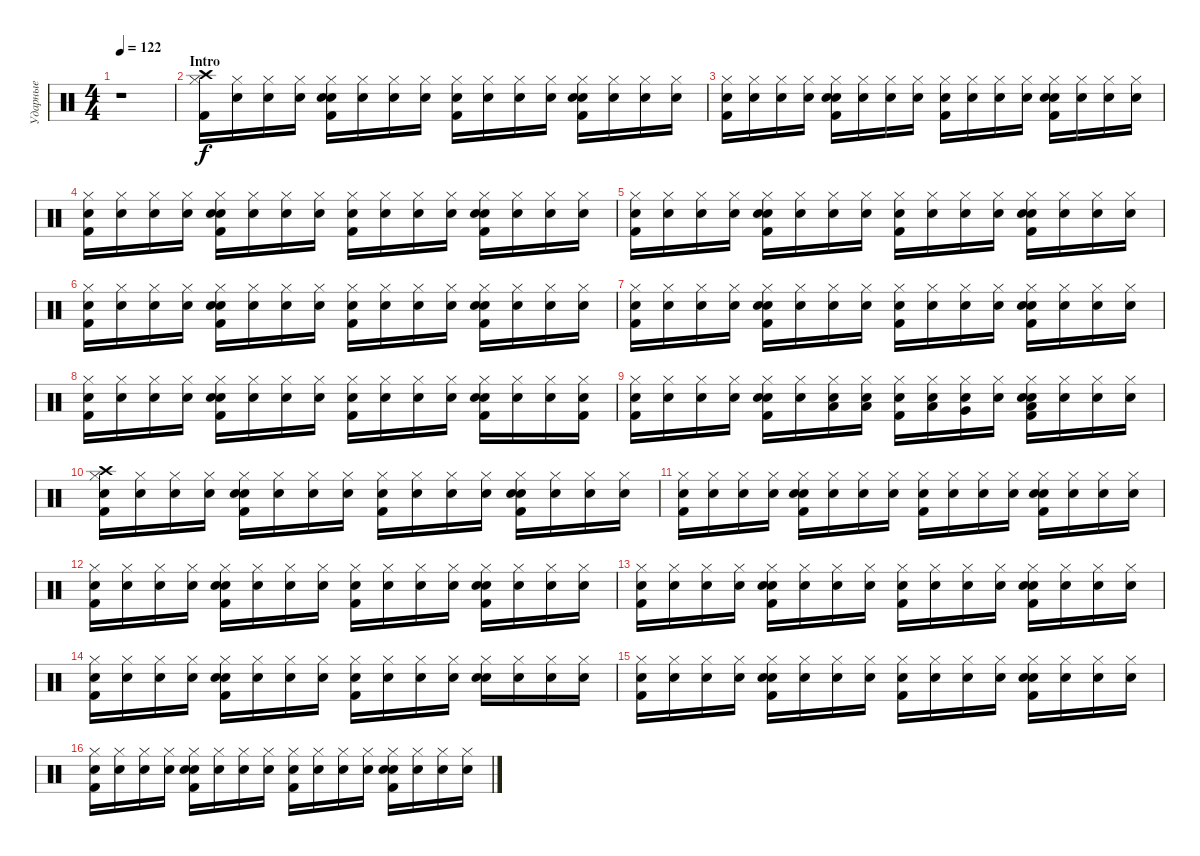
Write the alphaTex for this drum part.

\track ("Ударные" "Ударные") {instrument percussion}
\staff {score}
\articulation defaults
\ts (4 4)
\tempo 122
\clef neutral
\ks c
r.1{dy f} |
\section ("" "Intro")
("Hi-Hat (closed)" "Kick (hit) 2" "Crash high (hit)").16 ("Snare (hit)" "Hi-Hat (closed)").16 ("Snare (hit)" "Hi-Hat (closed)").16 ("Snare (hit)" "Hi-Hat (closed)").16 ("Snare (hit)" "Kick (hit) 2" "Hi-Hat (closed)" "Snare (hit) 2").16 ("Snare (hit)" "Hi-Hat (closed)").16 ("Snare (hit)" "Hi-Hat (closed)").16 ("Snare (hit)" "Hi-Hat (closed)").16 ("Snare (hit)" "Hi-Hat (closed)" "Kick (hit) 2").16 ("Snare (hit)" "Hi-Hat (closed)").16 ("Snare (hit)" "Hi-Hat (closed)").16 ("Snare (hit)" "Hi-Hat (closed)").16 ("Snare (hit)" "Kick (hit) 2" "Hi-Hat (closed)" "Snare (hit) 2").16 ("Snare (hit)" "Hi-Hat (closed)").16 ("Snare (hit)" "Hi-Hat (closed)").16 ("Snare (hit)" "Hi-Hat (closed)").16 |
("Snare (hit)" "Kick (hit) 2" "Hi-Hat (closed)").16 ("Snare (hit)" "Hi-Hat (closed)").16 ("Snare (hit)" "Hi-Hat (closed)").16 ("Snare (hit)" "Hi-Hat (closed)").16 ("Snare (hit)" "Kick (hit) 2" "Snare (hit) 2" "Hi-Hat (closed)").16 ("Snare (hit)" "Hi-Hat (closed)").16 ("Snare (hit)" "Hi-Hat (closed)").16 ("Snare (hit)" "Hi-Hat (closed)").16 ("Snare (hit)" "Kick (hit) 2" "Hi-Hat (closed)").16 ("Snare (hit)" "Hi-Hat (closed)").16 ("Snare (hit)" "Hi-Hat (closed)").16 ("Snare (hit)" "Hi-Hat (closed)").16 ("Snare (hit)" "Kick (hit) 2" "Snare (hit) 2" "Hi-Hat (closed)").16 ("Snare (hit)" "Hi-Hat (closed)").16 ("Snare (hit)" "Hi-Hat (closed)").16 ("Snare (hit)" "Hi-Hat (closed)").16 |
("Snare (hit)" "Kick (hit) 2" "Hi-Hat (closed)").16 ("Snare (hit)" "Hi-Hat (closed)").16 ("Snare (hit)" "Hi-Hat (closed)").16 ("Snare (hit)" "Hi-Hat (closed)").16 ("Snare (hit)" "Kick (hit) 2" "Snare (hit) 2" "Hi-Hat (closed)").16 ("Snare (hit)" "Hi-Hat (closed)").16 ("Snare (hit)" "Hi-Hat (closed)").16 ("Snare (hit)" "Hi-Hat (closed)").16 ("Snare (hit)" "Kick (hit) 2" "Hi-Hat (closed)").16 ("Snare (hit)" "Hi-Hat (closed)").16 ("Snare (hit)" "Hi-Hat (closed)").16 ("Snare (hit)" "Hi-Hat (closed)").16 ("Snare (hit)" "Kick (hit) 2" "Snare (hit) 2" "Hi-Hat (closed)").16 ("Snare (hit)" "Hi-Hat (closed)").16 ("Snare (hit)" "Hi-Hat (closed)").16 ("Snare (hit)" "Hi-Hat (closed)").16 |
("Snare (hit)" "Kick (hit) 2" "Hi-Hat (closed)").16 ("Snare (hit)" "Hi-Hat (closed)").16 ("Snare (hit)" "Hi-Hat (closed)").16 ("Snare (hit)" "Hi-Hat (closed)").16 ("Snare (hit)" "Kick (hit) 2" "Snare (hit) 2" "Hi-Hat (closed)").16 ("Snare (hit)" "Hi-Hat (closed)").16 ("Snare (hit)" "Hi-Hat (closed)").16 ("Snare (hit)" "Hi-Hat (closed)").16 ("Snare (hit)" "Kick (hit) 2" "Hi-Hat (closed)").16 ("Snare (hit)" "Hi-Hat (closed)").16 ("Snare (hit)" "Hi-Hat (closed)").16 ("Snare (hit)" "Hi-Hat (closed)").16 ("Snare (hit)" "Kick (hit) 2" "Snare (hit) 2" "Hi-Hat (closed)").16 ("Snare (hit)" "Hi-Hat (closed)").16 ("Snare (hit)" "Hi-Hat (closed)").16 ("Snare (hit)" "Hi-Hat (closed)").16 |
("Snare (hit)" "Kick (hit) 2" "Hi-Hat (closed)").16 ("Snare (hit)" "Hi-Hat (closed)").16 ("Snare (hit)" "Hi-Hat (closed)").16 ("Snare (hit)" "Hi-Hat (closed)").16 ("Snare (hit)" "Kick (hit) 2" "Snare (hit) 2" "Hi-Hat (closed)").16 ("Snare (hit)" "Hi-Hat (closed)").16 ("Snare (hit)" "Hi-Hat (closed)").16 ("Snare (hit)" "Hi-Hat (closed)").16 ("Snare (hit)" "Kick (hit) 2" "Hi-Hat (closed)").16 ("Snare (hit)" "Hi-Hat (closed)").16 ("Snare (hit)" "Hi-Hat (closed)").16 ("Snare (hit)" "Hi-Hat (closed)").16 ("Snare (hit)" "Kick (hit) 2" "Snare (hit) 2" "Hi-Hat (closed)").16 ("Snare (hit)" "Hi-Hat (closed)").16 ("Snare (hit)" "Hi-Hat (closed)").16 ("Snare (hit)" "Hi-Hat (closed)").16 |
("Snare (hit)" "Kick (hit) 2" "Hi-Hat (closed)").16 ("Snare (hit)" "Hi-Hat (closed)").16 ("Snare (hit)" "Hi-Hat (closed)").16 ("Snare (hit)" "Hi-Hat (closed)").16 ("Snare (hit)" "Kick (hit) 2" "Snare (hit) 2" "Hi-Hat (closed)").16 ("Snare (hit)" "Hi-Hat (closed)").16 ("Snare (hit)" "Hi-Hat (closed)").16 ("Snare (hit)" "Hi-Hat (closed)").16 ("Snare (hit)" "Kick (hit) 2" "Hi-Hat (closed)").16 ("Snare (hit)" "Hi-Hat (closed)").16 ("Snare (hit)" "Hi-Hat (closed)").16 ("Snare (hit)" "Hi-Hat (closed)").16 ("Snare (hit)" "Kick (hit) 2" "Snare (hit) 2" "Hi-Hat (closed)").16 ("Snare (hit)" "Hi-Hat (closed)").16 ("Snare (hit)" "Hi-Hat (closed)").16 ("Snare (hit)" "Hi-Hat (closed)").16 |
("Snare (hit)" "Kick (hit) 2" "Hi-Hat (closed)").16 ("Snare (hit)" "Hi-Hat (closed)").16 ("Snare (hit)" "Hi-Hat (closed)").16 ("Snare (hit)" "Hi-Hat (closed)").16 ("Snare (hit)" "Kick (hit) 2" "Snare (hit) 2" "Hi-Hat (closed)").16 ("Snare (hit)" "Hi-Hat (closed)").16 ("Snare (hit)" "Hi-Hat (closed)").16 ("Snare (hit)" "Hi-Hat (closed)").16 ("Snare (hit)" "Kick (hit) 2" "Hi-Hat (closed)").16 ("Snare (hit)" "Hi-Hat (closed)").16 ("Snare (hit)" "Hi-Hat (closed)").16 ("Snare (hit)" "Hi-Hat (closed)").16 ("Snare (hit)" "Kick (hit) 2" "Snare (hit) 2" "Hi-Hat (closed)").16 ("Snare (hit)" "Hi-Hat (closed)").16 ("Snare (hit)" "Hi-Hat (closed)").16 ("Snare (hit)" "Kick (hit) 2" "Hi-Hat (closed)").16 |
("Snare (hit)" "Kick (hit) 2" "Hi-Hat (closed)").16 ("Snare (hit)" "Hi-Hat (closed)").16 ("Snare (hit)" "Hi-Hat (closed)").16 ("Snare (hit)" "Hi-Hat (closed)").16 ("Snare (hit)" "Kick (hit) 2" "Snare (hit) 2" "Hi-Hat (closed)").16 ("Snare (hit)" "Hi-Hat (closed)").16 ("Snare (hit)" "Low Tom (hit)" "Hi-Hat (closed)").16 ("Snare (hit)" "Low Tom (hit)" "Hi-Hat (closed)").16 ("Snare (hit)" "Kick (hit) 2" "Hi-Hat (closed)").16 ("Snare (hit)" "Low Tom (hit)" "Hi-Hat (closed)").16 ("Snare (hit)" "Very Low Tom (hit)" "Hi-Hat (closed)").16 ("Snare (hit)" "Hi-Hat (closed)").16 ("Snare (hit)" "Kick (hit) 2" "Low Floor Tom (hit)" "Snare (hit) 2" "Hi-Hat (closed)").16 ("Snare (hit)" "Hi-Hat (closed)").16 ("Snare (hit)" "Hi-Hat (closed)").16 ("Snare (hit)" "Hi-Hat (closed)").16 |
("Snare (hit)" "Hi-Hat (closed)" "Kick (hit) 2" "Crash high (hit)").16 ("Snare (hit)" "Hi-Hat (closed)").16 ("Snare (hit)" "Hi-Hat (closed)").16 ("Snare (hit)" "Hi-Hat (closed)").16 ("Snare (hit)" "Kick (hit) 2" "Hi-Hat (closed)" "Snare (hit) 2").16 ("Snare (hit)" "Hi-Hat (closed)").16 ("Snare (hit)" "Hi-Hat (closed)").16 ("Snare (hit)" "Hi-Hat (closed)").16 ("Snare (hit)" "Hi-Hat (closed)" "Kick (hit) 2").16 ("Snare (hit)" "Hi-Hat (closed)").16 ("Snare (hit)" "Hi-Hat (closed)").16 ("Snare (hit)" "Hi-Hat (closed)").16 ("Snare (hit)" "Kick (hit) 2" "Hi-Hat (closed)" "Snare (hit) 2").16 ("Snare (hit)" "Hi-Hat (closed)").16 ("Snare (hit)" "Hi-Hat (closed)").16 ("Snare (hit)" "Hi-Hat (closed)").16 |
("Snare (hit)" "Kick (hit) 2" "Hi-Hat (closed)").16 ("Snare (hit)" "Hi-Hat (closed)").16 ("Snare (hit)" "Hi-Hat (closed)").16 ("Snare (hit)" "Hi-Hat (closed)").16 ("Snare (hit)" "Kick (hit) 2" "Snare (hit) 2" "Hi-Hat (closed)").16 ("Snare (hit)" "Hi-Hat (closed)").16 ("Snare (hit)" "Hi-Hat (closed)").16 ("Snare (hit)" "Hi-Hat (closed)").16 ("Snare (hit)" "Kick (hit) 2" "Hi-Hat (closed)").16 ("Snare (hit)" "Hi-Hat (closed)").16 ("Snare (hit)" "Hi-Hat (closed)").16 ("Snare (hit)" "Hi-Hat (closed)").16 ("Snare (hit)" "Kick (hit) 2" "Snare (hit) 2" "Hi-Hat (closed)").16 ("Snare (hit)" "Hi-Hat (closed)").16 ("Snare (hit)" "Hi-Hat (closed)").16 ("Snare (hit)" "Hi-Hat (closed)").16 |
("Snare (hit)" "Kick (hit) 2" "Hi-Hat (closed)").16 ("Snare (hit)" "Hi-Hat (closed)").16 ("Snare (hit)" "Hi-Hat (closed)").16 ("Snare (hit)" "Hi-Hat (closed)").16 ("Snare (hit)" "Kick (hit) 2" "Snare (hit) 2" "Hi-Hat (closed)").16 ("Snare (hit)" "Hi-Hat (closed)").16 ("Snare (hit)" "Hi-Hat (closed)").16 ("Snare (hit)" "Hi-Hat (closed)").16 ("Snare (hit)" "Kick (hit) 2" "Hi-Hat (closed)").16 ("Snare (hit)" "Hi-Hat (closed)").16 ("Snare (hit)" "Hi-Hat (closed)").16 ("Snare (hit)" "Hi-Hat (closed)").16 ("Snare (hit)" "Kick (hit) 2" "Snare (hit) 2" "Hi-Hat (closed)").16 ("Snare (hit)" "Hi-Hat (closed)").16 ("Snare (hit)" "Hi-Hat (closed)").16 ("Snare (hit)" "Hi-Hat (closed)").16 |
("Snare (hit)" "Kick (hit) 2" "Hi-Hat (closed)").16 ("Snare (hit)" "Hi-Hat (closed)").16 ("Snare (hit)" "Hi-Hat (closed)").16 ("Snare (hit)" "Hi-Hat (closed)").16 ("Snare (hit)" "Kick (hit) 2" "Snare (hit) 2" "Hi-Hat (closed)").16 ("Snare (hit)" "Hi-Hat (closed)").16 ("Snare (hit)" "Hi-Hat (closed)").16 ("Snare (hit)" "Hi-Hat (closed)").16 ("Snare (hit)" "Kick (hit) 2" "Hi-Hat (closed)").16 ("Snare (hit)" "Hi-Hat (closed)").16 ("Snare (hit)" "Hi-Hat (closed)").16 ("Snare (hit)" "Hi-Hat (closed)").16 ("Snare (hit)" "Kick (hit) 2" "Snare (hit) 2" "Hi-Hat (closed)").16 ("Snare (hit)" "Hi-Hat (closed)").16 ("Snare (hit)" "Hi-Hat (closed)").16 ("Snare (hit)" "Hi-Hat (closed)").16 |
("Snare (hit)" "Kick (hit) 2" "Hi-Hat (closed)").16 ("Snare (hit)" "Hi-Hat (closed)").16 ("Snare (hit)" "Hi-Hat (closed)").16 ("Snare (hit)" "Hi-Hat (closed)").16 ("Snare (hit)" "Kick (hit) 2" "Snare (hit) 2" "Hi-Hat (closed)").16 ("Snare (hit)" "Hi-Hat (closed)").16 ("Snare (hit)" "Hi-Hat (closed)").16 ("Snare (hit)" "Hi-Hat (closed)").16 ("Snare (hit)" "Kick (hit) 2" "Hi-Hat (closed)").16 ("Snare (hit)" "Hi-Hat (closed)").16 ("Snare (hit)" "Hi-Hat (closed)").16 ("Snare (hit)" "Hi-Hat (closed)").16 ("Snare (hit)" "Snare (hit) 2" "Hi-Hat (closed)").16 ("Snare (hit)" "Hi-Hat (closed)").16 ("Snare (hit)" "Hi-Hat (closed)").16 ("Snare (hit)" "Hi-Hat (closed)").16 |
("Snare (hit)" "Kick (hit) 2" "Hi-Hat (closed)").16 ("Snare (hit)" "Hi-Hat (closed)").16 ("Snare (hit)" "Hi-Hat (closed)").16 ("Snare (hit)" "Hi-Hat (closed)").16 ("Snare (hit)" "Kick (hit) 2" "Snare (hit) 2" "Hi-Hat (closed)").16 ("Snare (hit)" "Hi-Hat (closed)").16 ("Snare (hit)" "Hi-Hat (closed)").16 ("Snare (hit)" "Hi-Hat (closed)").16 ("Snare (hit)" "Kick (hit) 2" "Hi-Hat (closed)").16 ("Snare (hit)" "Hi-Hat (closed)").16 ("Snare (hit)" "Hi-Hat (closed)").16 ("Snare (hit)" "Hi-Hat (closed)").16 ("Snare (hit)" "Kick (hit) 2" "Snare (hit) 2" "Hi-Hat (closed)").16 ("Snare (hit)" "Hi-Hat (closed)").16 ("Snare (hit)" "Hi-Hat (closed)").16 ("Snare (hit)" "Hi-Hat (closed)").16 |
("Snare (hit)" "Kick (hit) 2" "Hi-Hat (closed)").16 ("Snare (hit)" "Hi-Hat (closed)").16 ("Snare (hit)" "Hi-Hat (closed)").16 ("Snare (hit)" "Hi-Hat (closed)").16 ("Snare (hit)" "Kick (hit) 2" "Snare (hit) 2" "Hi-Hat (closed)").16 ("Snare (hit)" "Hi-Hat (closed)").16 ("Snare (hit)" "Hi-Hat (closed)").16 ("Snare (hit)" "Hi-Hat (closed)").16 ("Snare (hit)" "Kick (hit) 2" "Hi-Hat (closed)").16 ("Snare (hit)" "Hi-Hat (closed)").16 ("Snare (hit)" "Hi-Hat (closed)").16 ("Snare (hit)" "Hi-Hat (closed)").16 ("Snare (hit)" "Kick (hit) 2" "Snare (hit) 2" "Hi-Hat (closed)").16 ("Snare (hit)" "Hi-Hat (closed)").16 ("Snare (hit)" "Hi-Hat (closed)").16 ("Snare (hit)" "Hi-Hat (closed)").16
